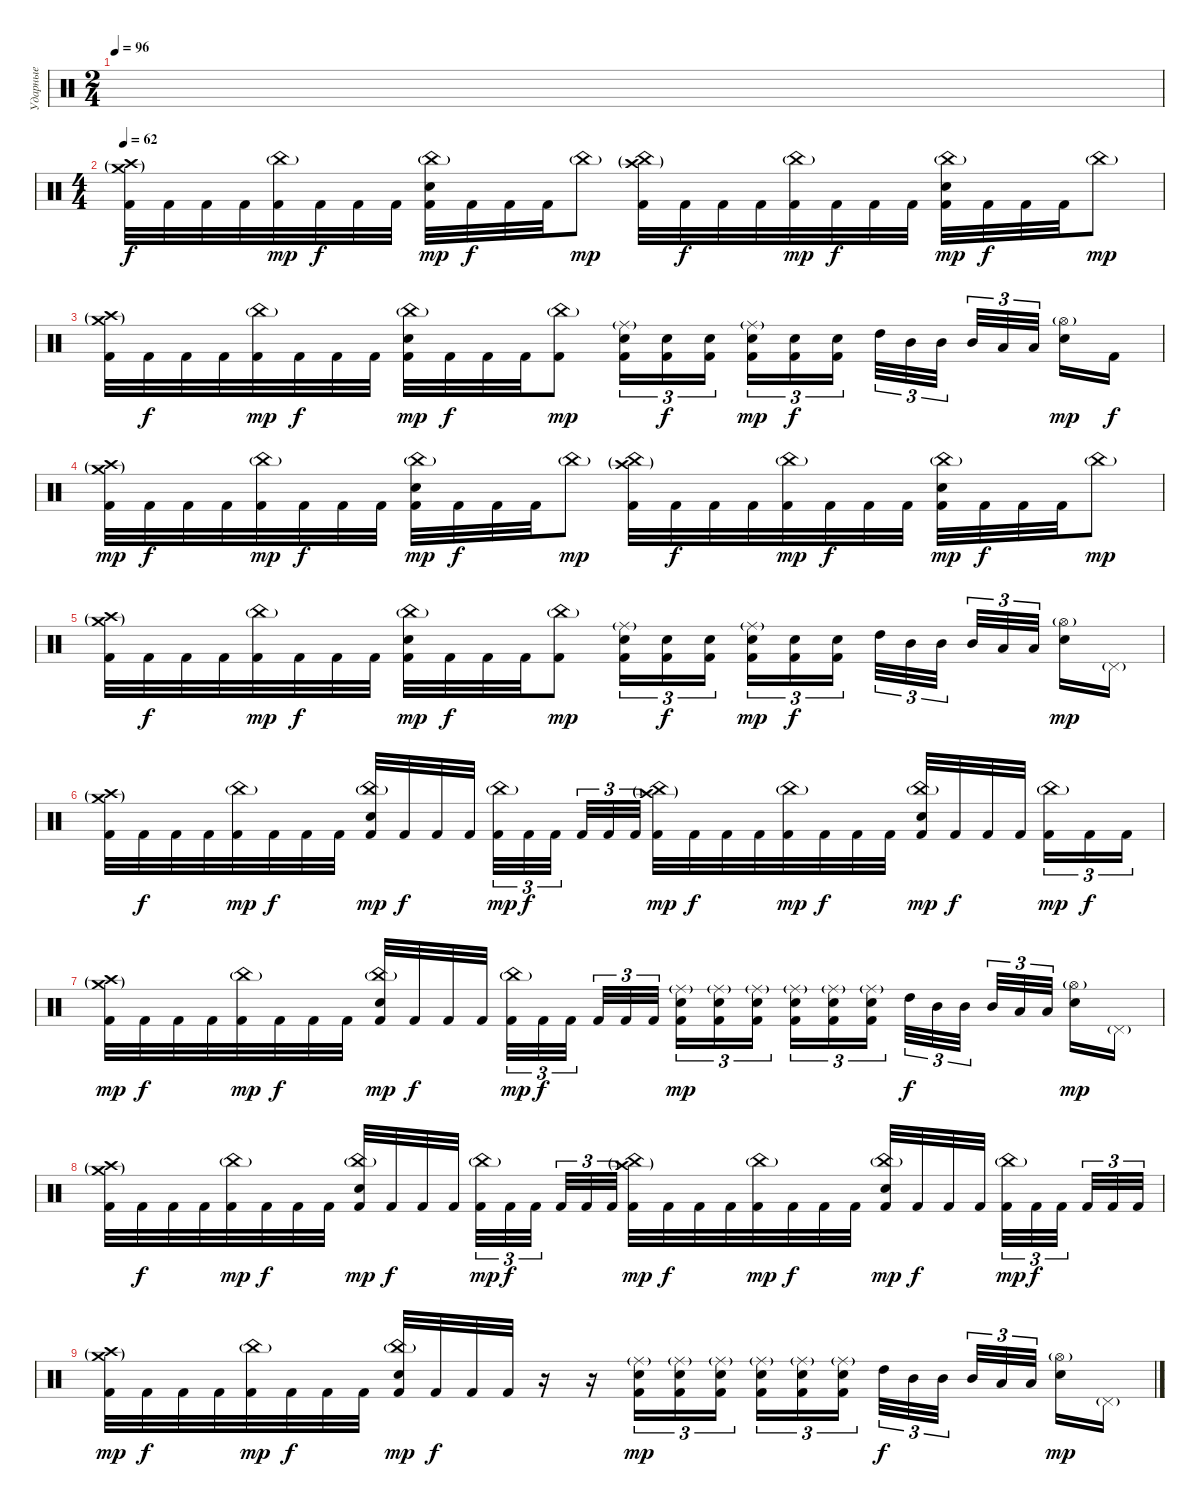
\track ("Ударные" "Ударные") {instrument percussion}
\staff {score}
\articulation defaults
\ts (2 4)
\tempo 96
\clef neutral
\ks c
|
\ts (4 4)
\tempo 62
("Crash medium (hit)"{g} "Crash high (hit)"{g} "Kick (hit) 2").32{volume 16} "Kick (hit) 2".32{dy f} "Kick (hit) 2".32 "Kick (hit) 2".32 ("China (hit)"{g} "Kick (hit) 2").32{dy mp} "Kick (hit) 2".32{dy f} "Kick (hit) 2".32 "Kick (hit) 2".32 ("China (hit)"{g} "Electric Snare (hit)" "Kick (hit) 2").32{dy mp} "Kick (hit) 2".32{dy f} "Kick (hit) 2".32 "Kick (hit) 2".32 "China (hit)"{g}.8{dy mp} ("China (hit)"{g} "Crash high (hit)"{g} "Kick (hit) 2").32 "Kick (hit) 2".32{dy f} "Kick (hit) 2".32 "Kick (hit) 2".32 ("China (hit)"{g} "Kick (hit) 2").32{dy mp} "Kick (hit) 2".32{dy f} "Kick (hit) 2".32 "Kick (hit) 2".32 ("China (hit)"{g} "Electric Snare (hit)" "Kick (hit) 2").32{dy mp} "Kick (hit) 2".32{dy f} "Kick (hit) 2".32 "Kick (hit) 2".32 "China (hit)"{g}.8{dy mp} |
("Crash medium (hit)"{g} "Crash high (hit)"{g} "Kick (hit) 2").32 "Kick (hit) 2".32{dy f} "Kick (hit) 2".32 "Kick (hit) 2".32 ("China (hit)"{g} "Kick (hit) 2").32{dy mp} "Kick (hit) 2".32{dy f} "Kick (hit) 2".32 "Kick (hit) 2".32 ("China (hit)"{g} "Electric Snare (hit)" "Kick (hit) 2").32{dy mp} "Kick (hit) 2".32{dy f} "Kick (hit) 2".32 "Kick (hit) 2".32 ("China (hit)"{g} "Kick (hit) 2").8{dy mp} ("Ride (middle)"{g} "Electric Snare (hit)" "Kick (hit) 2").16{tu (3 2)} ("Electric Snare (hit)" "Kick (hit) 2").16{tu (3 2) dy f} ("Electric Snare (hit)" "Kick (hit) 2").16{tu (3 2)} ("Ride (middle)"{g} "Electric Snare (hit)" "Kick (hit) 2").16{tu (3 2) dy mp} ("Electric Snare (hit)" "Kick (hit) 2").16{tu (3 2) dy f} ("Electric Snare (hit)" "Kick (hit) 2").16{tu (3 2)} "High Tom (hit)".32{tu (3 2)} "Mid Tom (hit)".32{tu (3 2)} "Mid Tom (hit)".32{tu (3 2)} "Mid Tom (hit)".32{tu (3 2)} "Low Tom (hit)".32{tu (3 2)} "Low Tom (hit)".32{tu (3 2)} ("Hi-Hat (open)"{g} "Electric Snare (hit)").16{dy mp} "Kick (hit) 2".16{dy f} |
("Crash medium (hit)"{g} "Crash high (hit)"{g} "Kick (hit) 2").32{dy mp} "Kick (hit) 2".32{dy f} "Kick (hit) 2".32 "Kick (hit) 2".32 ("China (hit)"{g} "Kick (hit) 2").32{dy mp} "Kick (hit) 2".32{dy f} "Kick (hit) 2".32 "Kick (hit) 2".32 ("China (hit)"{g} "Electric Snare (hit)" "Kick (hit) 2").32{dy mp} "Kick (hit) 2".32{dy f} "Kick (hit) 2".32 "Kick (hit) 2".32 "China (hit)"{g}.8{dy mp} ("China (hit)"{g} "Crash high (hit)"{g} "Kick (hit) 2").32 "Kick (hit) 2".32{dy f} "Kick (hit) 2".32 "Kick (hit) 2".32 ("China (hit)"{g} "Kick (hit) 2").32{dy mp} "Kick (hit) 2".32{dy f} "Kick (hit) 2".32 "Kick (hit) 2".32 ("China (hit)"{g} "Electric Snare (hit)" "Kick (hit) 2").32{dy mp} "Kick (hit) 2".32{dy f} "Kick (hit) 2".32 "Kick (hit) 2".32 "China (hit)"{g}.8{dy mp} |
("Crash medium (hit)"{g} "Crash high (hit)"{g} "Kick (hit) 2").32 "Kick (hit) 2".32{dy f} "Kick (hit) 2".32 "Kick (hit) 2".32 ("China (hit)"{g} "Kick (hit) 2").32{dy mp} "Kick (hit) 2".32{dy f} "Kick (hit) 2".32 "Kick (hit) 2".32 ("China (hit)"{g} "Electric Snare (hit)" "Kick (hit) 2").32{dy mp} "Kick (hit) 2".32{dy f} "Kick (hit) 2".32 "Kick (hit) 2".32 ("China (hit)"{g} "Kick (hit) 2").8{dy mp} ("Ride (middle)"{g} "Electric Snare (hit)" "Kick (hit) 2").16{tu (3 2)} ("Electric Snare (hit)" "Kick (hit) 2").16{tu (3 2) dy f} ("Electric Snare (hit)" "Kick (hit) 2").16{tu (3 2)} ("Ride (middle)"{g} "Electric Snare (hit)" "Kick (hit) 2").16{tu (3 2) dy mp} ("Electric Snare (hit)" "Kick (hit) 2").16{tu (3 2) dy f} ("Electric Snare (hit)" "Kick (hit) 2").16{tu (3 2)} "High Tom (hit)".32{tu (3 2)} "Mid Tom (hit)".32{tu (3 2)} "Mid Tom (hit)".32{tu (3 2)} "Mid Tom (hit)".32{tu (3 2)} "Low Tom (hit)".32{tu (3 2)} "Low Tom (hit)".32{tu (3 2)} ("Hi-Hat (open)"{g} "Electric Snare (hit)").16{dy mp} "Pedal Hi-Hat (hit)"{g}.16{volume 8} |
("Crash medium (hit)"{g} "Crash high (hit)"{g} "Kick (hit) 2").32{volume 16} "Kick (hit) 2".32{dy f} "Kick (hit) 2".32 "Kick (hit) 2".32 ("China (hit)"{g} "Kick (hit) 2").32{dy mp} "Kick (hit) 2".32{dy f} "Kick (hit) 2".32 "Kick (hit) 2".32 ("China (hit)"{g} "Electric Snare (hit)" "Kick (hit) 2").32{dy mp} "Kick (hit) 2".32{dy f} "Kick (hit) 2".32 "Kick (hit) 2".32 ("China (hit)"{g} "Kick (hit) 2").32{tu (3 2) dy mp} "Kick (hit) 2".32{tu (3 2) dy f} "Kick (hit) 2".32{tu (3 2)} "Kick (hit) 2".32{tu (3 2)} "Kick (hit) 2".32{tu (3 2)} "Kick (hit) 2".32{tu (3 2)} ("China (hit)"{g} "Crash high (hit)"{g} "Kick (hit) 2").32{dy mp} "Kick (hit) 2".32{dy f} "Kick (hit) 2".32 "Kick (hit) 2".32 ("China (hit)"{g} "Kick (hit) 2").32{dy mp} "Kick (hit) 2".32{dy f} "Kick (hit) 2".32 "Kick (hit) 2".32 ("China (hit)"{g} "Electric Snare (hit)" "Kick (hit) 2").32{dy mp} "Kick (hit) 2".32{dy f} "Kick (hit) 2".32 "Kick (hit) 2".32 ("China (hit)"{g} "Kick (hit) 2").16{tu (3 2) dy mp} "Kick (hit) 2".16{tu (3 2) dy f} "Kick (hit) 2".16{tu (3 2)} |
("Crash medium (hit)"{g} "Crash high (hit)"{g} "Kick (hit) 2").32{dy mp} "Kick (hit) 2".32{dy f} "Kick (hit) 2".32 "Kick (hit) 2".32 ("China (hit)"{g} "Kick (hit) 2").32{dy mp} "Kick (hit) 2".32{dy f} "Kick (hit) 2".32 "Kick (hit) 2".32 ("China (hit)"{g} "Electric Snare (hit)" "Kick (hit) 2").32{dy mp} "Kick (hit) 2".32{dy f} "Kick (hit) 2".32 "Kick (hit) 2".32 ("China (hit)"{g} "Kick (hit) 2").32{tu (3 2) dy mp} "Kick (hit) 2".32{tu (3 2) dy f} "Kick (hit) 2".32{tu (3 2)} "Kick (hit) 2".32{tu (3 2)} "Kick (hit) 2".32{tu (3 2)} "Kick (hit) 2".32{tu (3 2)} ("Ride (middle)"{g} "Electric Snare (hit)" "Kick (hit) 2").16{tu (3 2) dy mp} ("Ride (middle)"{g} "Electric Snare (hit)" "Kick (hit) 2").16{tu (3 2)} ("Ride (middle)"{g} "Electric Snare (hit)" "Kick (hit) 2").16{tu (3 2)} ("Ride (middle)"{g} "Electric Snare (hit)" "Kick (hit) 2").16{tu (3 2)} ("Ride (middle)"{g} "Electric Snare (hit)" "Kick (hit) 2").16{tu (3 2)} ("Ride (middle)"{g} "Electric Snare (hit)" "Kick (hit) 2").16{tu (3 2)} "High Tom (hit)".32{tu (3 2) dy f} "Mid Tom (hit)".32{tu (3 2)} "Mid Tom (hit)".32{tu (3 2)} "Mid Tom (hit)".32{tu (3 2)} "Low Tom (hit)".32{tu (3 2)} "Low Tom (hit)".32{tu (3 2)} ("Hi-Hat (open)"{g} "Electric Snare (hit)").16{dy mp} "Pedal Hi-Hat (hit)"{g}.16{volume 6} |
("Crash medium (hit)"{g} "Crash high (hit)"{g} "Kick (hit) 2").32{volume 16} "Kick (hit) 2".32{dy f} "Kick (hit) 2".32 "Kick (hit) 2".32 ("China (hit)"{g} "Kick (hit) 2").32{dy mp} "Kick (hit) 2".32{dy f} "Kick (hit) 2".32 "Kick (hit) 2".32 ("China (hit)"{g} "Electric Snare (hit)" "Kick (hit) 2").32{dy mp} "Kick (hit) 2".32{dy f} "Kick (hit) 2".32 "Kick (hit) 2".32 ("China (hit)"{g} "Kick (hit) 2").32{tu (3 2) dy mp} "Kick (hit) 2".32{tu (3 2) dy f} "Kick (hit) 2".32{tu (3 2)} "Kick (hit) 2".32{tu (3 2)} "Kick (hit) 2".32{tu (3 2)} "Kick (hit) 2".32{tu (3 2)} ("China (hit)"{g} "Crash high (hit)"{g} "Kick (hit) 2").32{dy mp} "Kick (hit) 2".32{dy f} "Kick (hit) 2".32 "Kick (hit) 2".32 ("China (hit)"{g} "Kick (hit) 2").32{dy mp} "Kick (hit) 2".32{dy f} "Kick (hit) 2".32 "Kick (hit) 2".32 ("China (hit)"{g} "Electric Snare (hit)" "Kick (hit) 2").32{dy mp} "Kick (hit) 2".32{dy f} "Kick (hit) 2".32 "Kick (hit) 2".32 ("China (hit)"{g} "Kick (hit) 2").32{tu (3 2) dy mp} "Kick (hit) 2".32{tu (3 2) dy f} "Kick (hit) 2".32{tu (3 2)} "Kick (hit) 2".32{tu (3 2)} "Kick (hit) 2".32{tu (3 2)} "Kick (hit) 2".32{tu (3 2)} |
("Crash medium (hit)"{g} "Crash high (hit)"{g} "Kick (hit) 2").32{dy mp} "Kick (hit) 2".32{dy f} "Kick (hit) 2".32 "Kick (hit) 2".32 ("China (hit)"{g} "Kick (hit) 2").32{dy mp} "Kick (hit) 2".32{dy f} "Kick (hit) 2".32 "Kick (hit) 2".32 ("China (hit)"{g} "Electric Snare (hit)" "Kick (hit) 2").32{dy mp} "Kick (hit) 2".32{dy f} "Kick (hit) 2".32 "Kick (hit) 2".32 r.16{volume 0} r.16 ("Ride (middle)"{g} "Electric Snare (hit)" "Kick (hit) 2").16{tu (3 2) dy mp volume 16} ("Ride (middle)"{g} "Electric Snare (hit)" "Kick (hit) 2").16{tu (3 2)} ("Ride (middle)"{g} "Electric Snare (hit)" "Kick (hit) 2").16{tu (3 2)} ("Ride (middle)"{g} "Electric Snare (hit)" "Kick (hit) 2").16{tu (3 2)} ("Ride (middle)"{g} "Electric Snare (hit)" "Kick (hit) 2").16{tu (3 2)} ("Ride (middle)"{g} "Electric Snare (hit)" "Kick (hit) 2").16{tu (3 2)} "High Tom (hit)".32{tu (3 2) dy f} "Mid Tom (hit)".32{tu (3 2)} "Mid Tom (hit)".32{tu (3 2)} "Mid Tom (hit)".32{tu (3 2)} "Low Tom (hit)".32{tu (3 2)} "Low Tom (hit)".32{tu (3 2)} ("Hi-Hat (open)"{g} "Electric Snare (hit)").16{dy mp} "Pedal Hi-Hat (hit)"{g}.16{volume 6}
